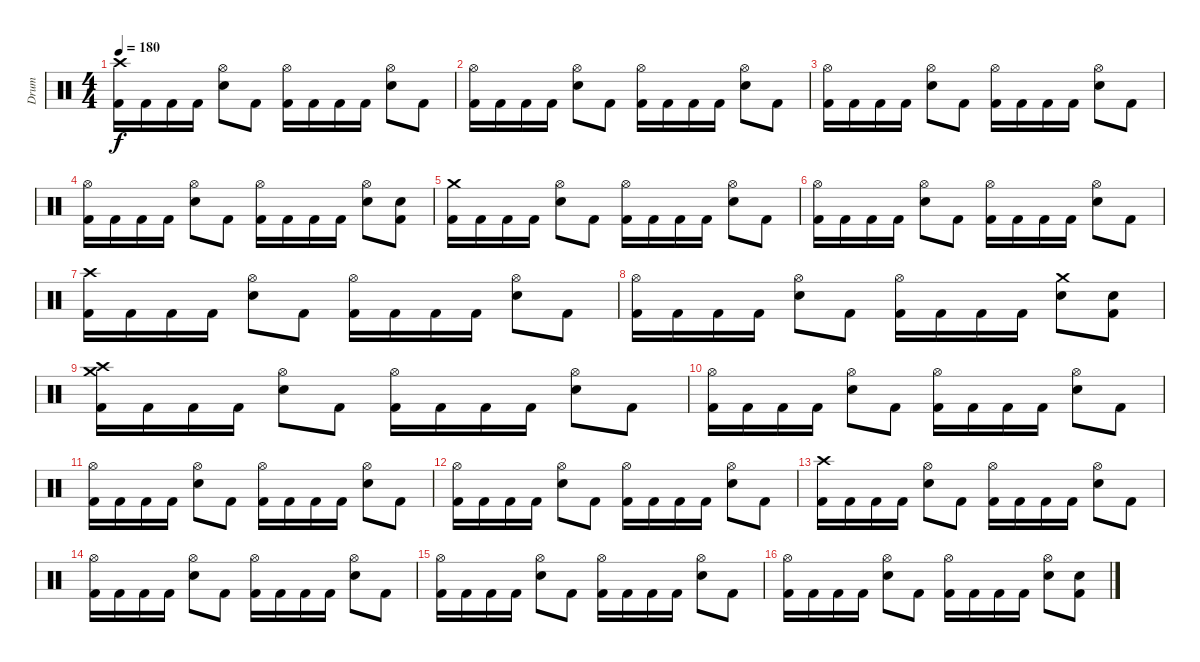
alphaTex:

\track ("Drum" "Drum") {instrument percussion}
\staff {score}
\articulation defaults
\ts (4 4)
\tempo 180
\clef neutral
\ks c
("Crash high (hit)" "Kick (hit) 2").16{dy f} "Kick (hit) 2".16 "Kick (hit) 2".16 "Kick (hit) 2".16 ("Hi-Hat (open)" "Snare (hit) 2").8 "Kick (hit) 2".8 ("Hi-Hat (open)" "Kick (hit) 2").16 "Kick (hit) 2".16 "Kick (hit) 2".16 "Kick (hit) 2".16 ("Hi-Hat (open)" "Snare (hit) 2").8 "Kick (hit) 2".8 |
("Hi-Hat (open)" "Kick (hit) 2").16 "Kick (hit) 2".16 "Kick (hit) 2".16 "Kick (hit) 2".16 ("Hi-Hat (open)" "Snare (hit) 2").8 "Kick (hit) 2".8 ("Hi-Hat (open)" "Kick (hit) 2").16 "Kick (hit) 2".16 "Kick (hit) 2".16 "Kick (hit) 2".16 ("Hi-Hat (open)" "Snare (hit) 2").8 "Kick (hit) 2".8 |
("Hi-Hat (open)" "Kick (hit) 2").16 "Kick (hit) 2".16 "Kick (hit) 2".16 "Kick (hit) 2".16 ("Hi-Hat (open)" "Snare (hit) 2").8 "Kick (hit) 2".8 ("Hi-Hat (open)" "Kick (hit) 2").16 "Kick (hit) 2".16 "Kick (hit) 2".16 "Kick (hit) 2".16 ("Hi-Hat (open)" "Snare (hit) 2").8 "Kick (hit) 2".8 |
("Hi-Hat (open)" "Kick (hit) 2").16 "Kick (hit) 2".16 "Kick (hit) 2".16 "Kick (hit) 2".16 ("Hi-Hat (open)" "Snare (hit) 2").8 "Kick (hit) 2".8 ("Hi-Hat (open)" "Kick (hit) 2").16 "Kick (hit) 2".16 "Kick (hit) 2".16 "Kick (hit) 2".16 ("Hi-Hat (open)" "Snare (hit) 2").8 ("Snare (hit) 2" "Kick (hit) 2").8 |
("Crash medium (hit)" "Kick (hit) 2").16 "Kick (hit) 2".16 "Kick (hit) 2".16 "Kick (hit) 2".16 ("Hi-Hat (open)" "Snare (hit) 2").8 "Kick (hit) 2".8 ("Hi-Hat (open)" "Kick (hit) 2").16 "Kick (hit) 2".16 "Kick (hit) 2".16 "Kick (hit) 2".16 ("Hi-Hat (open)" "Snare (hit) 2").8 "Kick (hit) 2".8 |
("Hi-Hat (open)" "Kick (hit) 2").16 "Kick (hit) 2".16 "Kick (hit) 2".16 "Kick (hit) 2".16 ("Hi-Hat (open)" "Snare (hit) 2").8 "Kick (hit) 2".8 ("Hi-Hat (open)" "Kick (hit) 2").16 "Kick (hit) 2".16 "Kick (hit) 2".16 "Kick (hit) 2".16 ("Hi-Hat (open)" "Snare (hit) 2").8 "Kick (hit) 2".8 |
("Crash high (hit)" "Kick (hit) 2").16 "Kick (hit) 2".16 "Kick (hit) 2".16 "Kick (hit) 2".16 ("Hi-Hat (open)" "Snare (hit) 2").8 "Kick (hit) 2".8 ("Hi-Hat (open)" "Kick (hit) 2").16 "Kick (hit) 2".16 "Kick (hit) 2".16 "Kick (hit) 2".16 ("Hi-Hat (open)" "Snare (hit) 2").8 "Kick (hit) 2".8 |
("Hi-Hat (open)" "Kick (hit) 2").16 "Kick (hit) 2".16 "Kick (hit) 2".16 "Kick (hit) 2".16 ("Hi-Hat (open)" "Snare (hit) 2").8 "Kick (hit) 2".8 ("Hi-Hat (open)" "Kick (hit) 2").16 "Kick (hit) 2".16 "Kick (hit) 2".16 "Kick (hit) 2".16 ("Crash medium (hit)" "Snare (hit) 2").8 ("Snare (hit) 2" "Kick (hit) 2").8 |
("Crash high (hit)" "Crash medium (hit)" "Kick (hit) 2").16 "Kick (hit) 2".16 "Kick (hit) 2".16 "Kick (hit) 2".16 ("Hi-Hat (open)" "Snare (hit) 2").8 "Kick (hit) 2".8 ("Hi-Hat (open)" "Kick (hit) 2").16 "Kick (hit) 2".16 "Kick (hit) 2".16 "Kick (hit) 2".16 ("Hi-Hat (open)" "Snare (hit) 2").8 "Kick (hit) 2".8 |
("Hi-Hat (open)" "Kick (hit) 2").16 "Kick (hit) 2".16 "Kick (hit) 2".16 "Kick (hit) 2".16 ("Hi-Hat (open)" "Snare (hit) 2").8 "Kick (hit) 2".8 ("Hi-Hat (open)" "Kick (hit) 2").16 "Kick (hit) 2".16 "Kick (hit) 2".16 "Kick (hit) 2".16 ("Hi-Hat (open)" "Snare (hit) 2").8 "Kick (hit) 2".8 |
("Hi-Hat (open)" "Kick (hit) 2").16 "Kick (hit) 2".16 "Kick (hit) 2".16 "Kick (hit) 2".16 ("Hi-Hat (open)" "Snare (hit) 2").8 "Kick (hit) 2".8 ("Hi-Hat (open)" "Kick (hit) 2").16 "Kick (hit) 2".16 "Kick (hit) 2".16 "Kick (hit) 2".16 ("Hi-Hat (open)" "Snare (hit) 2").8 "Kick (hit) 2".8 |
("Hi-Hat (open)" "Kick (hit) 2").16 "Kick (hit) 2".16 "Kick (hit) 2".16 "Kick (hit) 2".16 ("Hi-Hat (open)" "Snare (hit) 2").8 "Kick (hit) 2".8 ("Hi-Hat (open)" "Kick (hit) 2").16 "Kick (hit) 2".16 "Kick (hit) 2".16 "Kick (hit) 2".16 ("Hi-Hat (open)" "Snare (hit) 2").8 "Kick (hit) 2".8 |
("Crash high (hit)" "Kick (hit) 2").16 "Kick (hit) 2".16 "Kick (hit) 2".16 "Kick (hit) 2".16 ("Hi-Hat (open)" "Snare (hit) 2").8 "Kick (hit) 2".8 ("Hi-Hat (open)" "Kick (hit) 2").16 "Kick (hit) 2".16 "Kick (hit) 2".16 "Kick (hit) 2".16 ("Hi-Hat (open)" "Snare (hit) 2").8 "Kick (hit) 2".8 |
("Hi-Hat (open)" "Kick (hit) 2").16 "Kick (hit) 2".16 "Kick (hit) 2".16 "Kick (hit) 2".16 ("Hi-Hat (open)" "Snare (hit) 2").8 "Kick (hit) 2".8 ("Hi-Hat (open)" "Kick (hit) 2").16 "Kick (hit) 2".16 "Kick (hit) 2".16 "Kick (hit) 2".16 ("Hi-Hat (open)" "Snare (hit) 2").8 "Kick (hit) 2".8 |
("Hi-Hat (open)" "Kick (hit) 2").16 "Kick (hit) 2".16 "Kick (hit) 2".16 "Kick (hit) 2".16 ("Hi-Hat (open)" "Snare (hit) 2").8 "Kick (hit) 2".8 ("Hi-Hat (open)" "Kick (hit) 2").16 "Kick (hit) 2".16 "Kick (hit) 2".16 "Kick (hit) 2".16 ("Hi-Hat (open)" "Snare (hit) 2").8 "Kick (hit) 2".8 |
("Hi-Hat (open)" "Kick (hit) 2").16 "Kick (hit) 2".16 "Kick (hit) 2".16 "Kick (hit) 2".16 ("Hi-Hat (open)" "Snare (hit) 2").8 "Kick (hit) 2".8 ("Hi-Hat (open)" "Kick (hit) 2").16 "Kick (hit) 2".16 "Kick (hit) 2".16 "Kick (hit) 2".16 ("Hi-Hat (open)" "Snare (hit) 2").8 ("Snare (hit) 2" "Kick (hit) 2").8
